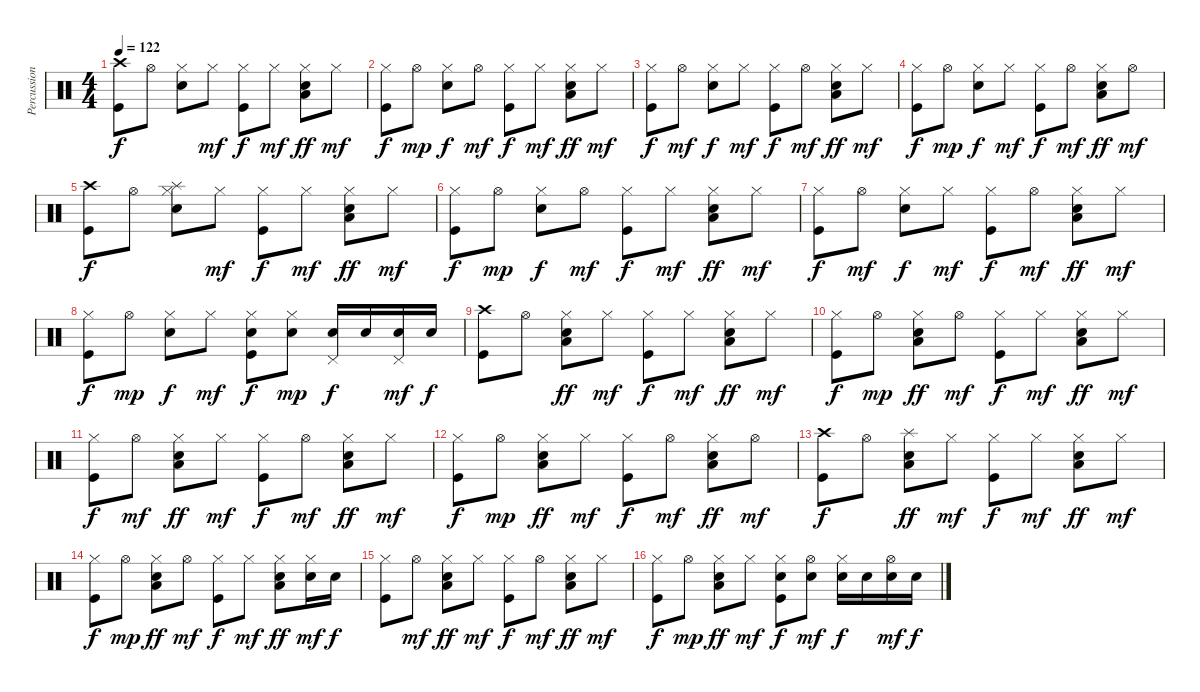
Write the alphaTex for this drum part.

\track ("Percussioni" "Percussion") {instrument percussion}
\staff {score}
\articulation defaults
\ts (4 4)
\tempo 122
\clef neutral
\ks c
("Crash high (hit)" "Kick (hit)").8{dy f} "Hi-Hat (open)".8 ("Hi-Hat (closed)" "Snare (hit) 2").8 "Hi-Hat (closed)".8{dy mf} ("Hi-Hat (closed)" "Kick (hit)").8{dy f} "Hi-Hat (closed)".8{dy mf} ("Low Floor Tom (hit)" "Hi-Hat (closed)" "Snare (hit) 2").8{dy ff} "Hi-Hat (closed)".8{dy mf} |
("Hi-Hat (closed)" "Kick (hit)").8{dy f} "Hi-Hat (open)".8{dy mp} ("Hi-Hat (closed)" "Snare (hit) 2").8{dy f} "Hi-Hat (open)".8{dy mf} ("Hi-Hat (closed)" "Kick (hit)").8{dy f} "Hi-Hat (closed)".8{dy mf} ("Low Floor Tom (hit)" "Hi-Hat (closed)" "Snare (hit) 2").8{dy ff} "Hi-Hat (closed)".8{dy mf} |
("Hi-Hat (closed)" "Kick (hit)").8{dy f} "Hi-Hat (open)".8{dy mf} ("Hi-Hat (closed)" "Snare (hit) 2").8{dy f} "Hi-Hat (closed)".8{dy mf} ("Hi-Hat (closed)" "Kick (hit)").8{dy f} "Hi-Hat (open)".8{dy mf} ("Low Floor Tom (hit)" "Hi-Hat (closed)" "Snare (hit) 2").8{dy ff} "Hi-Hat (closed)".8{dy mf} |
("Hi-Hat (closed)" "Kick (hit)").8{dy f} "Hi-Hat (open)".8{dy mp} ("Hi-Hat (closed)" "Snare (hit) 2").8{dy f} "Hi-Hat (closed)".8{dy mf} ("Hi-Hat (closed)" "Kick (hit)").8{dy f} "Hi-Hat (open)".8{dy mf} ("Low Floor Tom (hit)" "Hi-Hat (closed)" "Snare (hit) 2").8{dy ff} "Hi-Hat (open)".8{dy mf} |
("Crash high (hit)" "Kick (hit)").8{dy f} "Hi-Hat (open)".8 ("Splash (hit)" "Hi-Hat (closed)" "Snare (hit) 2").8 "Hi-Hat (closed)".8{dy mf} ("Hi-Hat (closed)" "Kick (hit)").8{dy f} "Hi-Hat (closed)".8{dy mf} ("Low Floor Tom (hit)" "Hi-Hat (closed)" "Snare (hit) 2").8{dy ff} "Hi-Hat (closed)".8{dy mf} |
("Hi-Hat (closed)" "Kick (hit)").8{dy f} "Hi-Hat (open)".8{dy mp} ("Hi-Hat (closed)" "Snare (hit) 2").8{dy f} "Hi-Hat (open)".8{dy mf} ("Hi-Hat (closed)" "Kick (hit)").8{dy f} "Hi-Hat (closed)".8{dy mf} ("Low Floor Tom (hit)" "Hi-Hat (closed)" "Snare (hit) 2").8{dy ff} "Hi-Hat (closed)".8{dy mf} |
("Hi-Hat (closed)" "Kick (hit)").8{dy f} "Hi-Hat (open)".8{dy mf} ("Hi-Hat (closed)" "Snare (hit) 2").8{dy f} "Hi-Hat (closed)".8{dy mf} ("Hi-Hat (closed)" "Kick (hit)").8{dy f} "Hi-Hat (open)".8{dy mf} ("Low Floor Tom (hit)" "Hi-Hat (closed)" "Snare (hit) 2").8{dy ff} "Hi-Hat (closed)".8{dy mf} |
("Hi-Hat (closed)" "Kick (hit)").8{dy f} "Hi-Hat (open)".8{dy mp} ("Hi-Hat (closed)" "Snare (hit) 2").8{dy f} "Hi-Hat (closed)".8{dy mf} ("Hi-Hat (closed)" "Snare (hit) 2" "Kick (hit)").8{dy f} ("Hi-Hat (closed)" "Snare (hit) 2").8{dy mp} ("Pedal Hi-Hat (hit)" "Snare (hit) 2").16{dy f} "Snare (hit) 2".16 ("Pedal Hi-Hat (hit)" "Snare (hit) 2").16{dy mf} "Snare (hit) 2".16{dy f} |
("Crash high (hit)" "Kick (hit)").8 "Hi-Hat (open)".8 ("Low Floor Tom (hit)" "Hi-Hat (closed)" "Snare (hit) 2").8{dy ff} "Hi-Hat (closed)".8{dy mf} ("Hi-Hat (closed)" "Kick (hit)").8{dy f} "Hi-Hat (closed)".8{dy mf} ("Low Floor Tom (hit)" "Hi-Hat (closed)" "Snare (hit) 2").8{dy ff} "Hi-Hat (closed)".8{dy mf} |
("Hi-Hat (closed)" "Kick (hit)").8{dy f} "Hi-Hat (open)".8{dy mp} ("Low Floor Tom (hit)" "Hi-Hat (closed)" "Snare (hit) 2").8{dy ff} "Hi-Hat (open)".8{dy mf} ("Hi-Hat (closed)" "Kick (hit)").8{dy f} "Hi-Hat (closed)".8{dy mf} ("Low Floor Tom (hit)" "Hi-Hat (closed)" "Snare (hit) 2").8{dy ff} "Hi-Hat (closed)".8{dy mf} |
("Hi-Hat (closed)" "Kick (hit)").8{dy f} "Hi-Hat (open)".8{dy mf} ("Low Floor Tom (hit)" "Hi-Hat (closed)" "Snare (hit) 2").8{dy ff} "Hi-Hat (closed)".8{dy mf} ("Hi-Hat (closed)" "Kick (hit)").8{dy f} "Hi-Hat (open)".8{dy mf} ("Low Floor Tom (hit)" "Hi-Hat (closed)" "Snare (hit) 2").8{dy ff} "Hi-Hat (closed)".8{dy mf} |
("Hi-Hat (closed)" "Kick (hit)").8{dy f} "Hi-Hat (open)".8{dy mp} ("Low Floor Tom (hit)" "Hi-Hat (closed)" "Snare (hit) 2").8{dy ff} "Hi-Hat (closed)".8{dy mf} ("Hi-Hat (closed)" "Kick (hit)").8{dy f} "Hi-Hat (open)".8{dy mf} ("Low Floor Tom (hit)" "Hi-Hat (closed)" "Snare (hit) 2").8{dy ff} "Hi-Hat (open)".8{dy mf} |
("Crash high (hit)" "Kick (hit)").8{dy f} "Hi-Hat (open)".8 ("Splash (hit)" "Low Floor Tom (hit)" "Snare (hit) 2").8{dy ff} "Hi-Hat (closed)".8{dy mf} ("Hi-Hat (closed)" "Kick (hit)").8{dy f} "Hi-Hat (closed)".8{dy mf} ("Low Floor Tom (hit)" "Hi-Hat (closed)" "Snare (hit) 2").8{dy ff} "Hi-Hat (closed)".8{dy mf} |
("Hi-Hat (closed)" "Kick (hit)").8{dy f} "Hi-Hat (open)".8{dy mp} ("Low Floor Tom (hit)" "Hi-Hat (closed)" "Snare (hit) 2").8{dy ff} "Hi-Hat (open)".8{dy mf} ("Hi-Hat (closed)" "Kick (hit)").8{dy f} "Hi-Hat (closed)".8{dy mf} ("Low Floor Tom (hit)" "Hi-Hat (closed)" "Snare (hit) 2").8{dy ff} ("Hi-Hat (closed)" "Snare (hit) 2").16{dy mf} "Snare (hit) 2".16{dy f} |
("Hi-Hat (closed)" "Kick (hit)").8 "Hi-Hat (open)".8{dy mf} ("Low Floor Tom (hit)" "Hi-Hat (closed)" "Snare (hit) 2").8{dy ff} "Hi-Hat (closed)".8{dy mf} ("Hi-Hat (closed)" "Kick (hit)").8{dy f} "Hi-Hat (open)".8{dy mf} ("Low Floor Tom (hit)" "Hi-Hat (closed)" "Snare (hit) 2").8{dy ff} "Hi-Hat (closed)".8{dy mf} |
("Hi-Hat (closed)" "Kick (hit)").8{dy f} "Hi-Hat (open)".8{dy mp} ("Low Floor Tom (hit)" "Hi-Hat (closed)" "Snare (hit) 2").8{dy ff} "Hi-Hat (closed)".8{dy mf} ("Hi-Hat (closed)" "Snare (hit) 2" "Kick (hit)").8{dy f} ("Hi-Hat (open)" "Snare (hit) 2").8{dy mf} ("Hi-Hat (closed)" "Snare (hit) 2").16{dy f} "Snare (hit) 2".16 ("Hi-Hat (open)" "Snare (hit) 2").16{dy mf} "Snare (hit) 2".16{dy f}
